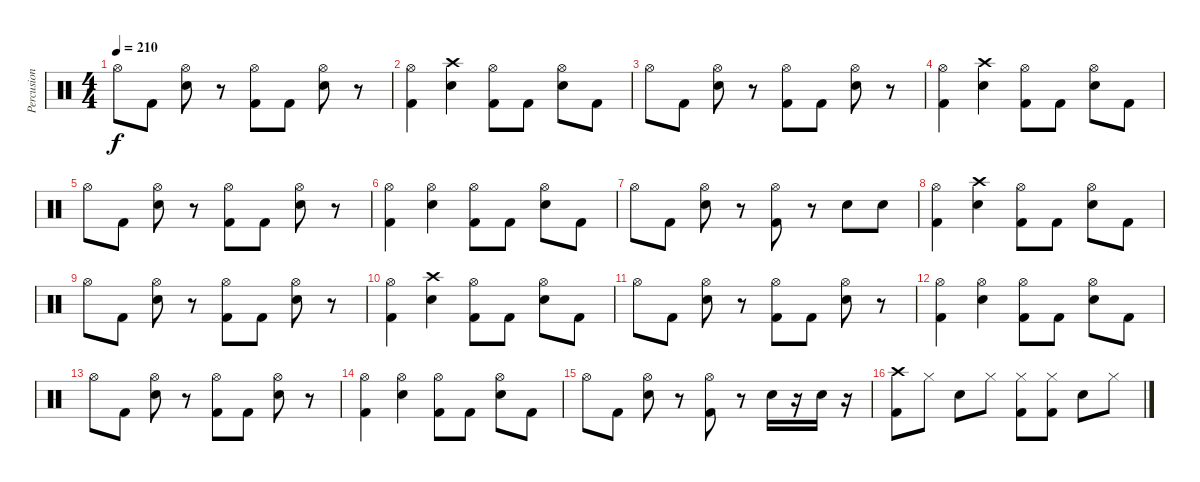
\track ("Percusion" "Percusion") {instrument percussion}
\staff {score}
\articulation defaults
\ts (4 4)
\tempo 210
\clef neutral
\ks c "Hi-Hat (open)".8{dy f} "Kick (hit) 2".8
("Hi-Hat (open)" "Snare (hit) 2").8 r.8 ("Hi-Hat (open)" "Kick (hit) 2").8 "Kick (hit) 2".8 ("Hi-Hat (open)" "Snare (hit) 2").8 r.8 |
("Hi-Hat (open)" "Kick (hit) 2").4 ("Crash high (hit)" "Snare (hit) 2").4 ("Hi-Hat (open)" "Kick (hit) 2").8 "Kick (hit) 2".8 ("Hi-Hat (open)" "Snare (hit) 2").8 "Kick (hit) 2".8 |
"Hi-Hat (open)".8 "Kick (hit) 2".8 ("Hi-Hat (open)" "Snare (hit) 2").8 r.8 ("Hi-Hat (open)" "Kick (hit) 2").8 "Kick (hit) 2".8 ("Hi-Hat (open)" "Snare (hit) 2").8 r.8 |
("Hi-Hat (open)" "Kick (hit) 2").4 ("Crash high (hit)" "Snare (hit) 2").4 ("Hi-Hat (open)" "Kick (hit) 2").8 "Kick (hit) 2".8 ("Hi-Hat (open)" "Snare (hit) 2").8 "Kick (hit) 2".8 |
"Hi-Hat (open)".8 "Kick (hit) 2".8 ("Hi-Hat (open)" "Snare (hit) 2").8 r.8 ("Hi-Hat (open)" "Kick (hit) 2").8 "Kick (hit) 2".8 ("Hi-Hat (open)" "Snare (hit) 2").8 r.8 |
("Hi-Hat (open)" "Kick (hit) 2").4 ("Hi-Hat (open)" "Snare (hit) 2").4 ("Hi-Hat (open)" "Kick (hit) 2").8 "Kick (hit) 2".8 ("Hi-Hat (open)" "Snare (hit) 2").8 "Kick (hit) 2".8 |
"Hi-Hat (open)".8 "Kick (hit) 2".8 ("Hi-Hat (open)" "Snare (hit) 2").8 r.8 ("Hi-Hat (open)" "Kick (hit) 2").8 r.8 "Snare (hit) 2".8 "Snare (hit) 2".8 |
("Hi-Hat (open)" "Kick (hit) 2").4 ("Crash high (hit)" "Snare (hit) 2").4 ("Hi-Hat (open)" "Kick (hit) 2").8 "Kick (hit) 2".8 ("Hi-Hat (open)" "Snare (hit) 2").8 "Kick (hit) 2".8 |
"Hi-Hat (open)".8 "Kick (hit) 2".8 ("Hi-Hat (open)" "Snare (hit) 2").8 r.8 ("Hi-Hat (open)" "Kick (hit) 2").8 "Kick (hit) 2".8 ("Hi-Hat (open)" "Snare (hit) 2").8 r.8 |
("Hi-Hat (open)" "Kick (hit) 2").4 ("Crash high (hit)" "Snare (hit) 2").4 ("Hi-Hat (open)" "Kick (hit) 2").8 "Kick (hit) 2".8 ("Hi-Hat (open)" "Snare (hit) 2").8 "Kick (hit) 2".8 |
"Hi-Hat (open)".8 "Kick (hit) 2".8 ("Hi-Hat (open)" "Snare (hit) 2").8 r.8 ("Hi-Hat (open)" "Kick (hit) 2").8 "Kick (hit) 2".8 ("Hi-Hat (open)" "Snare (hit) 2").8 r.8 |
("Hi-Hat (open)" "Kick (hit) 2").4 ("Hi-Hat (open)" "Snare (hit) 2").4 ("Hi-Hat (open)" "Kick (hit) 2").8 "Kick (hit) 2".8 ("Hi-Hat (open)" "Snare (hit) 2").8 "Kick (hit) 2".8 |
"Hi-Hat (open)".8 "Kick (hit) 2".8 ("Hi-Hat (open)" "Snare (hit) 2").8 r.8 ("Hi-Hat (open)" "Kick (hit) 2").8 "Kick (hit) 2".8 ("Hi-Hat (open)" "Snare (hit) 2").8 r.8 |
("Hi-Hat (open)" "Kick (hit) 2").4 ("Hi-Hat (open)" "Snare (hit) 2").4 ("Hi-Hat (open)" "Kick (hit) 2").8 "Kick (hit) 2".8 ("Hi-Hat (open)" "Snare (hit) 2").8 "Kick (hit) 2".8 |
"Hi-Hat (open)".8 "Kick (hit) 2".8 ("Hi-Hat (open)" "Snare (hit) 2").8 r.8 ("Hi-Hat (open)" "Kick (hit) 2").8 r.8 "Snare (hit) 2".16 r.16 "Snare (hit) 2".16 r.16 |
("Crash high (hit)" "Kick (hit) 2").8 "Hi-Hat (closed)".8 "Snare (hit) 2".8 "Hi-Hat (closed)".8 ("Hi-Hat (closed)" "Kick (hit) 2").8 ("Hi-Hat (closed)" "Kick (hit) 2").8 "Snare (hit) 2".8 "Hi-Hat (closed)".8
